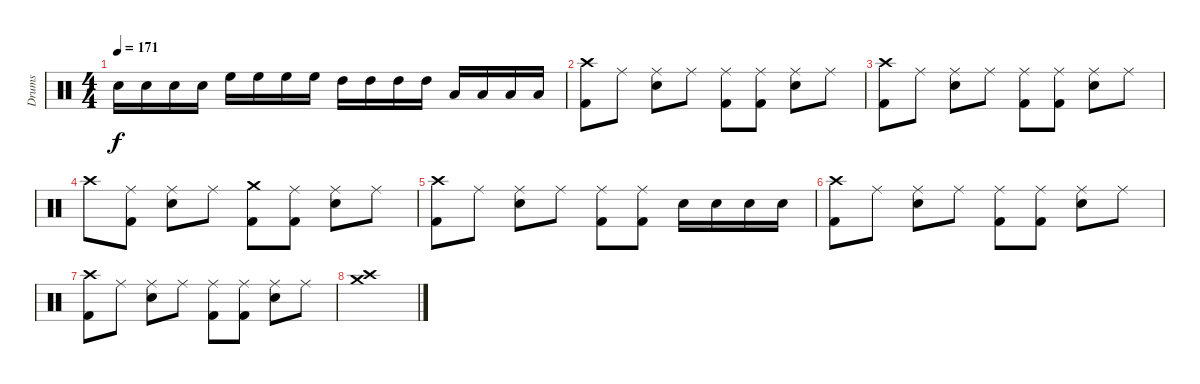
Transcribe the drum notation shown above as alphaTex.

\track ("Drums" "Drums") {instrument percussion}
\staff {score}
\articulation defaults
\ts (4 4)
\tempo 171
\clef neutral
\ks c "Electric Snare (hit)".16{dy f} "Electric Snare (hit)".16 "Electric Snare (hit)".16 "Electric Snare (hit)".16 "High Floor Tom (hit)".16 "High Floor Tom (hit)".16 "High Floor Tom (hit)".16 "High Floor Tom (hit)".16 "High Tom (hit)".16 "High Tom (hit)".16 "High Tom (hit)".16 "High Tom (hit)".16 "Low Tom (hit)".16 "Low Tom (hit)".16 "Low Tom (hit)".16 "Low Tom (hit)".16
|
("Crash high (hit)" "Kick (hit) 2").8 "Ride (middle)".8 ("Ride (middle)" "Electric Snare (hit)").8 "Ride (middle)".8 ("Ride (middle)" "Kick (hit) 2").8 ("Ride (middle)" "Kick (hit) 2").8 ("Ride (middle)" "Electric Snare (hit)").8 "Ride (middle)".8 |
("Crash high (hit)" "Kick (hit) 2").8 "Ride (middle)".8 ("Ride (middle)" "Electric Snare (hit)").8 "Ride (middle)".8 ("Ride (middle)" "Kick (hit) 2").8 ("Ride (middle)" "Kick (hit) 2").8 ("Ride (middle)" "Electric Snare (hit)").8 "Ride (middle)".8 |
"Crash high (hit)".8 ("Ride (middle)" "Kick (hit) 2").8 ("Ride (middle)" "Electric Snare (hit)").8 "Ride (middle)".8 ("Crash medium (hit)" "Kick (hit) 2").8 ("Ride (middle)" "Kick (hit) 2").8 ("Ride (middle)" "Electric Snare (hit)").8 "Ride (middle)".8 |
("Crash high (hit)" "Kick (hit) 2").8 "Ride (middle)".8 ("Ride (middle)" "Electric Snare (hit)").8 "Ride (middle)".8 ("Ride (middle)" "Kick (hit) 2").8 ("Ride (middle)" "Kick (hit) 2").8 "Electric Snare (hit)".16 "Electric Snare (hit)".16 "Electric Snare (hit)".16 "Electric Snare (hit)".16 |
("Crash high (hit)" "Kick (hit) 2").8 "Ride (middle)".8 ("Ride (middle)" "Electric Snare (hit)").8 "Ride (middle)".8 ("Ride (middle)" "Kick (hit) 2").8 ("Ride (middle)" "Kick (hit) 2").8 ("Ride (middle)" "Electric Snare (hit)").8 "Ride (middle)".8 |
("Crash high (hit)" "Kick (hit) 2").8 "Ride (middle)".8 ("Ride (middle)" "Electric Snare (hit)").8 "Ride (middle)".8 ("Ride (middle)" "Kick (hit) 2").8 ("Ride (middle)" "Kick (hit) 2").8 ("Ride (middle)" "Electric Snare (hit)").8 "Ride (middle)".8 |
("Crash high (hit)" "Crash medium (hit)").1
